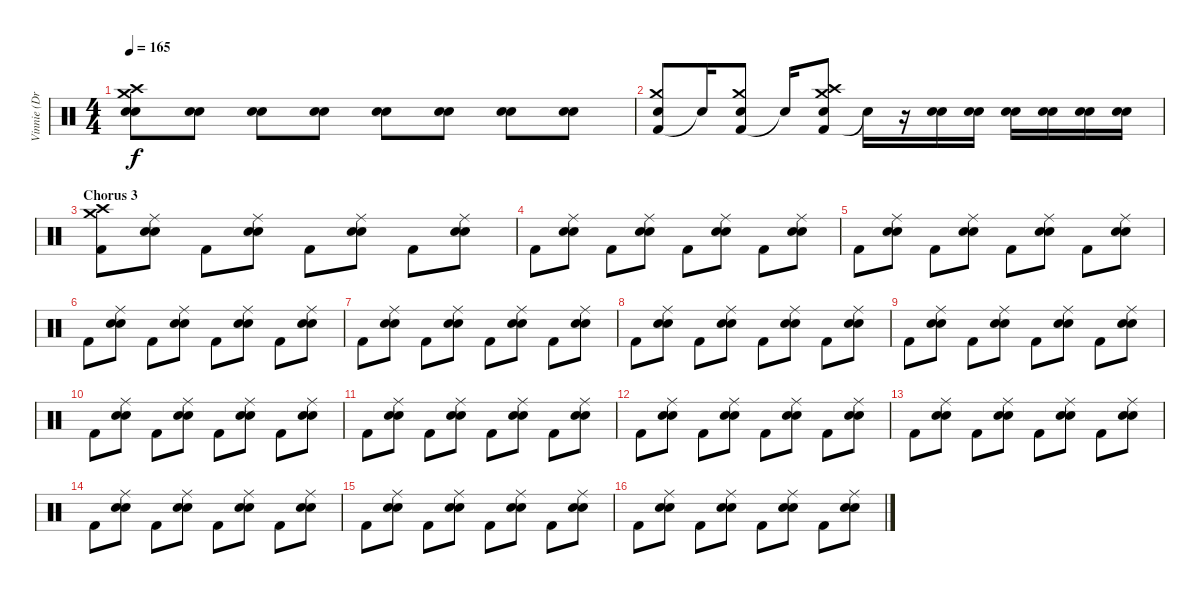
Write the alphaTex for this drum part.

\track ("Vinnie (Drums)" "Vinnie (Dr") {instrument percussion}
\staff {score}
\articulation defaults
\ts (4 4)
\tempo 165
\clef neutral
\ks c
("Snare (hit) 2" "Electric Snare (hit)" "Crash medium (hit)" "Crash high (hit)").8{dy f} ("Electric Snare (hit)" "Snare (hit) 2").8 ("Snare (hit) 2" "Electric Snare (hit)").8 ("Electric Snare (hit)" "Snare (hit) 2").8 ("Snare (hit) 2" "Electric Snare (hit)").8 ("Electric Snare (hit)" "Snare (hit) 2").8 ("Snare (hit) 2" "Electric Snare (hit)").8 ("Electric Snare (hit)" "Snare (hit) 2").8 |
("Kick (hit) 2" "Snare (hit) 2" "Crash medium (hit)").8 "Snare (hit)"{t}.16 ("Kick (hit) 2" "Snare (hit) 2" "Crash medium (hit)").8 "Snare (hit)"{t}.16 ("Kick (hit) 2" "Snare (hit) 2" "Crash medium (hit)" "Crash high (hit)").8 "Snare (hit)"{t}.16 r.16 ("Electric Snare (hit)" "Snare (hit) 2").16 ("Electric Snare (hit)" "Snare (hit) 2").16 ("Electric Snare (hit)" "Snare (hit) 2").16 ("Electric Snare (hit)" "Snare (hit) 2").16 ("Electric Snare (hit)" "Snare (hit) 2").16 ("Electric Snare (hit)" "Snare (hit) 2").16 |
\section ("" "Chorus 3")
("Kick (hit) 2" "Crash high (hit)" "Crash medium (hit)").8 ("Snare (hit) 2" "Electric Snare (hit)" "Ride (middle)").8 "Kick (hit) 2".8 ("Snare (hit) 2" "Electric Snare (hit)" "Ride (middle)").8 "Kick (hit) 2".8 ("Snare (hit) 2" "Electric Snare (hit)" "Ride (middle)").8 "Kick (hit) 2".8 ("Snare (hit) 2" "Electric Snare (hit)" "Ride (middle)").8 |
"Kick (hit) 2".8 ("Snare (hit) 2" "Electric Snare (hit)" "Ride (middle)").8 "Kick (hit) 2".8 ("Snare (hit) 2" "Electric Snare (hit)" "Ride (middle)").8 "Kick (hit) 2".8 ("Snare (hit) 2" "Electric Snare (hit)" "Ride (middle)").8 "Kick (hit) 2".8 ("Snare (hit) 2" "Electric Snare (hit)" "Ride (middle)").8 |
"Kick (hit) 2".8 ("Snare (hit) 2" "Electric Snare (hit)" "Ride (middle)").8 "Kick (hit) 2".8 ("Snare (hit) 2" "Electric Snare (hit)" "Ride (middle)").8 "Kick (hit) 2".8 ("Snare (hit) 2" "Electric Snare (hit)" "Ride (middle)").8 "Kick (hit) 2".8 ("Snare (hit) 2" "Electric Snare (hit)" "Ride (middle)").8 |
"Kick (hit) 2".8 ("Snare (hit) 2" "Electric Snare (hit)" "Ride (middle)").8 "Kick (hit) 2".8 ("Snare (hit) 2" "Electric Snare (hit)" "Ride (middle)").8 "Kick (hit) 2".8 ("Snare (hit) 2" "Electric Snare (hit)" "Ride (middle)").8 "Kick (hit) 2".8 ("Snare (hit) 2" "Electric Snare (hit)" "Ride (middle)").8 |
"Kick (hit) 2".8 ("Snare (hit) 2" "Electric Snare (hit)" "Ride (middle)").8 "Kick (hit) 2".8 ("Snare (hit) 2" "Electric Snare (hit)" "Ride (middle)").8 "Kick (hit) 2".8 ("Snare (hit) 2" "Electric Snare (hit)" "Ride (middle)").8 "Kick (hit) 2".8 ("Snare (hit) 2" "Electric Snare (hit)" "Ride (middle)").8 |
"Kick (hit) 2".8 ("Snare (hit) 2" "Electric Snare (hit)" "Ride (middle)").8 "Kick (hit) 2".8 ("Snare (hit) 2" "Electric Snare (hit)" "Ride (middle)").8 "Kick (hit) 2".8 ("Snare (hit) 2" "Electric Snare (hit)" "Ride (middle)").8 "Kick (hit) 2".8 ("Snare (hit) 2" "Electric Snare (hit)" "Ride (middle)").8 |
"Kick (hit) 2".8 ("Snare (hit) 2" "Electric Snare (hit)" "Ride (middle)").8 "Kick (hit) 2".8 ("Snare (hit) 2" "Electric Snare (hit)" "Ride (middle)").8 "Kick (hit) 2".8 ("Snare (hit) 2" "Electric Snare (hit)" "Ride (middle)").8 "Kick (hit) 2".8 ("Snare (hit) 2" "Electric Snare (hit)" "Ride (middle)").8 |
"Kick (hit) 2".8 ("Snare (hit) 2" "Electric Snare (hit)" "Ride (middle)").8 "Kick (hit) 2".8 ("Snare (hit) 2" "Electric Snare (hit)" "Ride (middle)").8 "Kick (hit) 2".8 ("Snare (hit) 2" "Electric Snare (hit)" "Ride (middle)").8 "Kick (hit) 2".8 ("Snare (hit) 2" "Electric Snare (hit)" "Ride (middle)").8 |
"Kick (hit) 2".8 ("Snare (hit) 2" "Electric Snare (hit)" "Ride (middle)").8 "Kick (hit) 2".8 ("Snare (hit) 2" "Electric Snare (hit)" "Ride (middle)").8 "Kick (hit) 2".8 ("Snare (hit) 2" "Electric Snare (hit)" "Ride (middle)").8 "Kick (hit) 2".8 ("Snare (hit) 2" "Electric Snare (hit)" "Ride (middle)").8 |
"Kick (hit) 2".8 ("Snare (hit) 2" "Electric Snare (hit)" "Ride (middle)").8 "Kick (hit) 2".8 ("Snare (hit) 2" "Electric Snare (hit)" "Ride (middle)").8 "Kick (hit) 2".8 ("Snare (hit) 2" "Electric Snare (hit)" "Ride (middle)").8 "Kick (hit) 2".8 ("Snare (hit) 2" "Electric Snare (hit)" "Ride (middle)").8 |
"Kick (hit) 2".8 ("Snare (hit) 2" "Electric Snare (hit)" "Ride (middle)").8 "Kick (hit) 2".8 ("Snare (hit) 2" "Electric Snare (hit)" "Ride (middle)").8 "Kick (hit) 2".8 ("Snare (hit) 2" "Electric Snare (hit)" "Ride (middle)").8 "Kick (hit) 2".8 ("Snare (hit) 2" "Electric Snare (hit)" "Ride (middle)").8 |
"Kick (hit) 2".8 ("Snare (hit) 2" "Electric Snare (hit)" "Ride (middle)").8 "Kick (hit) 2".8 ("Snare (hit) 2" "Electric Snare (hit)" "Ride (middle)").8 "Kick (hit) 2".8 ("Snare (hit) 2" "Electric Snare (hit)" "Ride (middle)").8 "Kick (hit) 2".8 ("Snare (hit) 2" "Electric Snare (hit)" "Ride (middle)").8 |
"Kick (hit) 2".8 ("Snare (hit) 2" "Electric Snare (hit)" "Ride (middle)").8 "Kick (hit) 2".8 ("Snare (hit) 2" "Electric Snare (hit)" "Ride (middle)").8 "Kick (hit) 2".8 ("Snare (hit) 2" "Electric Snare (hit)" "Ride (middle)").8 "Kick (hit) 2".8 ("Snare (hit) 2" "Electric Snare (hit)" "Ride (middle)").8 |
"Kick (hit) 2".8 ("Snare (hit) 2" "Electric Snare (hit)" "Ride (middle)").8 "Kick (hit) 2".8 ("Snare (hit) 2" "Electric Snare (hit)" "Ride (middle)").8 "Kick (hit) 2".8 ("Snare (hit) 2" "Electric Snare (hit)" "Ride (middle)").8 "Kick (hit) 2".8 ("Snare (hit) 2" "Electric Snare (hit)" "Ride (middle)").8
